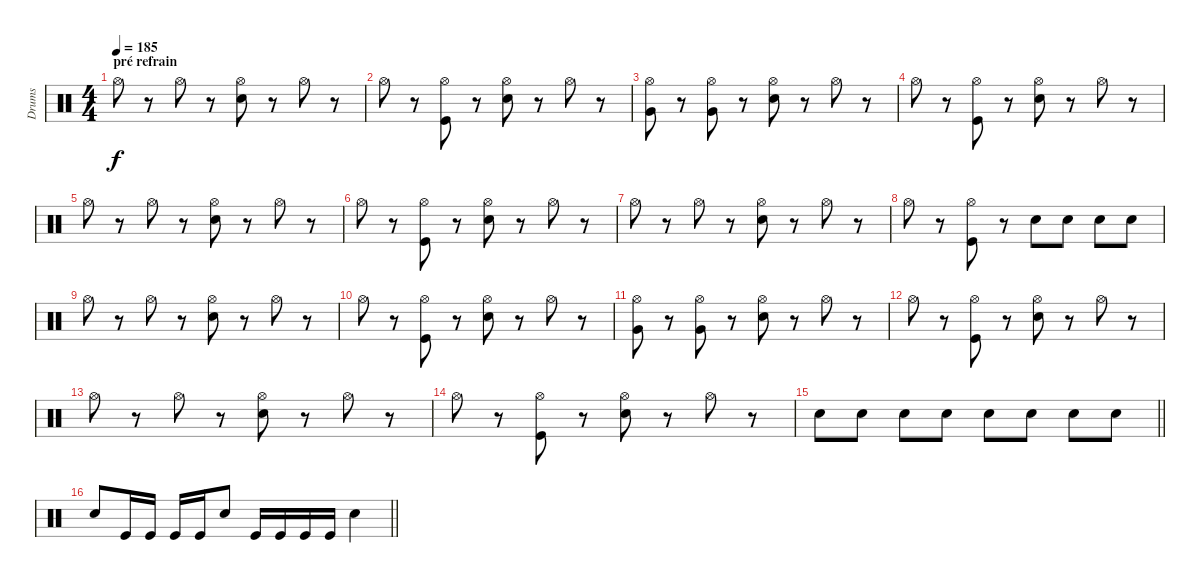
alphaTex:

\track ("Drums" "Drums") {instrument percussion}
\staff {score}
\articulation defaults
\ts (4 4)
\section ("" "pré refrain")
\tempo 185
\clef neutral
\ks c "Hi-Hat (open)".8{dy f}
r.8 "Hi-Hat (open)".8 r.8 ("Hi-Hat (open)" "Electric Snare (hit)").8 r.8 "Hi-Hat (open)".8 r.8 |
"Hi-Hat (open)".8 r.8 ("Hi-Hat (open)" "Kick (hit)").8 r.8 ("Hi-Hat (open)" "Electric Snare (hit)").8 r.8 "Hi-Hat (open)".8 r.8 |
("Hi-Hat (open)" "Very Low Tom (hit)").8 r.8 ("Hi-Hat (open)" "Very Low Tom (hit)").8 r.8 ("Hi-Hat (open)" "Electric Snare (hit)").8 r.8 "Hi-Hat (open)".8 r.8 |
"Hi-Hat (open)".8 r.8 ("Hi-Hat (open)" "Kick (hit)").8 r.8 ("Hi-Hat (open)" "Electric Snare (hit)").8 r.8 "Hi-Hat (open)".8 r.8 |
"Hi-Hat (open)".8 r.8 "Hi-Hat (open)".8 r.8 ("Hi-Hat (open)" "Electric Snare (hit)").8 r.8 "Hi-Hat (open)".8 r.8 |
"Hi-Hat (open)".8 r.8 ("Hi-Hat (open)" "Kick (hit)").8 r.8 ("Hi-Hat (open)" "Electric Snare (hit)").8 r.8 "Hi-Hat (open)".8 r.8 |
"Hi-Hat (open)".8 r.8 "Hi-Hat (open)".8 r.8 ("Hi-Hat (open)" "Electric Snare (hit)").8 r.8 "Hi-Hat (open)".8 r.8 |
"Hi-Hat (open)".8 r.8 ("Hi-Hat (open)" "Kick (hit)").8 r.8 "Electric Snare (hit)".8 "Electric Snare (hit)".8 "Electric Snare (hit)".8 "Electric Snare (hit)".8 |
"Hi-Hat (open)".8 r.8 "Hi-Hat (open)".8 r.8 ("Hi-Hat (open)" "Electric Snare (hit)").8 r.8 "Hi-Hat (open)".8 r.8 |
"Hi-Hat (open)".8 r.8 ("Hi-Hat (open)" "Kick (hit)").8 r.8 ("Hi-Hat (open)" "Electric Snare (hit)").8 r.8 "Hi-Hat (open)".8 r.8 |
("Hi-Hat (open)" "Very Low Tom (hit)").8 r.8 ("Hi-Hat (open)" "Very Low Tom (hit)").8 r.8 ("Hi-Hat (open)" "Electric Snare (hit)").8 r.8 "Hi-Hat (open)".8 r.8 |
"Hi-Hat (open)".8 r.8 ("Hi-Hat (open)" "Kick (hit)").8 r.8 ("Hi-Hat (open)" "Electric Snare (hit)").8 r.8 "Hi-Hat (open)".8 r.8 |
"Hi-Hat (open)".8 r.8 "Hi-Hat (open)".8 r.8 ("Hi-Hat (open)" "Electric Snare (hit)").8 r.8 "Hi-Hat (open)".8 r.8 |
"Hi-Hat (open)".8 r.8 ("Hi-Hat (open)" "Kick (hit)").8 r.8 ("Hi-Hat (open)" "Electric Snare (hit)").8 r.8 "Hi-Hat (open)".8 r.8 |
\barLineRight lightlight "Electric Snare (hit)".8 "Electric Snare (hit)".8 "Electric Snare (hit)".8 "Electric Snare (hit)".8 "Electric Snare (hit)".8 "Electric Snare (hit)".8 "Electric Snare (hit)".8 "Electric Snare (hit)".8
|
\barLineRight lightlight "Electric Snare (hit)".8 "Kick (hit)".16 "Kick (hit)".16 "Kick (hit)".16 "Kick (hit)".16 "Electric Snare (hit)".8 "Kick (hit)".16 "Kick (hit)".16 "Kick (hit)".16 "Kick (hit)".16 "Electric Snare (hit)".4
